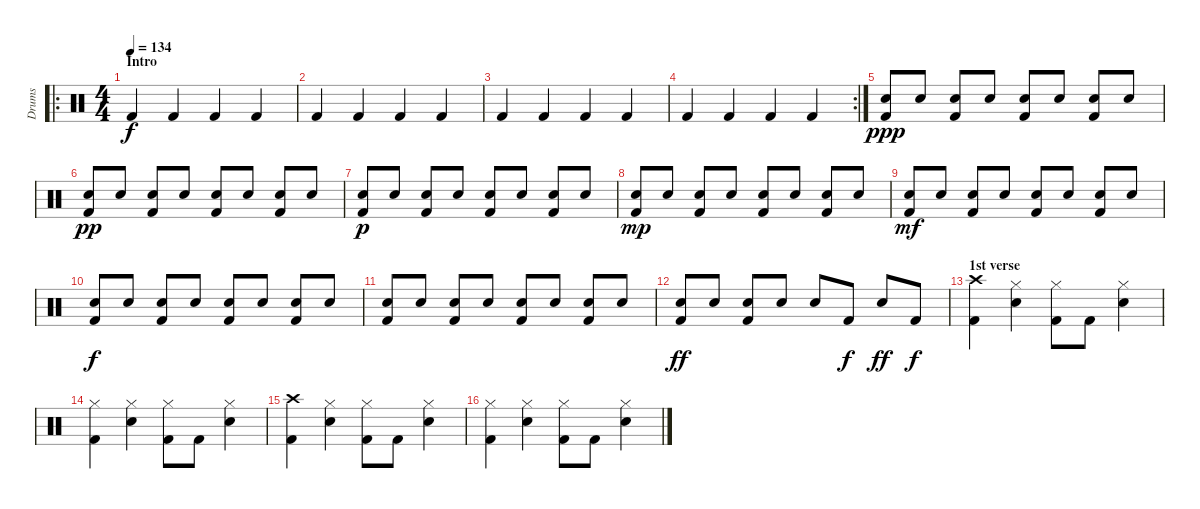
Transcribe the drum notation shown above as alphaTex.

\track ("Drums" "Drums") {instrument percussion}
\staff {score}
\articulation defaults
\ro
\ts (4 4)
\section ("" "Intro")
\tempo 134
\clef neutral
\ks c "Kick (hit) 2".4{dy f} "Kick (hit) 2".4 "Kick (hit) 2".4 "Kick (hit) 2".4
|
"Kick (hit) 2".4 "Kick (hit) 2".4 "Kick (hit) 2".4 "Kick (hit) 2".4 |
"Kick (hit) 2".4 "Kick (hit) 2".4 "Kick (hit) 2".4 "Kick (hit) 2".4 |
\rc 2 "Kick (hit) 2".4 "Kick (hit) 2".4 "Kick (hit) 2".4 "Kick (hit) 2".4
|
("Electric Snare (hit)" "Kick (hit) 2").8{dy ppp} "Electric Snare (hit)".8 ("Electric Snare (hit)" "Kick (hit) 2").8 "Electric Snare (hit)".8 ("Electric Snare (hit)" "Kick (hit) 2").8 "Electric Snare (hit)".8 ("Electric Snare (hit)" "Kick (hit) 2").8 "Electric Snare (hit)".8 |
("Electric Snare (hit)" "Kick (hit) 2").8{dy pp} "Electric Snare (hit)".8 ("Electric Snare (hit)" "Kick (hit) 2").8 "Electric Snare (hit)".8 ("Electric Snare (hit)" "Kick (hit) 2").8 "Electric Snare (hit)".8 ("Electric Snare (hit)" "Kick (hit) 2").8 "Electric Snare (hit)".8 |
("Electric Snare (hit)" "Kick (hit) 2").8{dy p} "Electric Snare (hit)".8 ("Electric Snare (hit)" "Kick (hit) 2").8 "Electric Snare (hit)".8 ("Electric Snare (hit)" "Kick (hit) 2").8 "Electric Snare (hit)".8 ("Electric Snare (hit)" "Kick (hit) 2").8 "Electric Snare (hit)".8 |
("Electric Snare (hit)" "Kick (hit) 2").8{dy mp} "Electric Snare (hit)".8 ("Electric Snare (hit)" "Kick (hit) 2").8 "Electric Snare (hit)".8 ("Electric Snare (hit)" "Kick (hit) 2").8 "Electric Snare (hit)".8 ("Electric Snare (hit)" "Kick (hit) 2").8 "Electric Snare (hit)".8 |
("Electric Snare (hit)" "Kick (hit) 2").8{dy mf} "Electric Snare (hit)".8 ("Electric Snare (hit)" "Kick (hit) 2").8 "Electric Snare (hit)".8 ("Electric Snare (hit)" "Kick (hit) 2").8 "Electric Snare (hit)".8 ("Electric Snare (hit)" "Kick (hit) 2").8 "Electric Snare (hit)".8 |
("Electric Snare (hit)" "Kick (hit) 2").8{dy f} "Electric Snare (hit)".8 ("Electric Snare (hit)" "Kick (hit) 2").8 "Electric Snare (hit)".8 ("Electric Snare (hit)" "Kick (hit) 2").8 "Electric Snare (hit)".8 ("Electric Snare (hit)" "Kick (hit) 2").8 "Electric Snare (hit)".8 |
("Electric Snare (hit)" "Kick (hit) 2").8 "Electric Snare (hit)".8 ("Electric Snare (hit)" "Kick (hit) 2").8 "Electric Snare (hit)".8 ("Electric Snare (hit)" "Kick (hit) 2").8 "Electric Snare (hit)".8 ("Electric Snare (hit)" "Kick (hit) 2").8 "Electric Snare (hit)".8 |
("Electric Snare (hit)" "Kick (hit) 2").8{dy ff} "Electric Snare (hit)".8 ("Electric Snare (hit)" "Kick (hit) 2").8 "Electric Snare (hit)".8 "Electric Snare (hit)".8 "Kick (hit) 2".8{dy f} "Electric Snare (hit)".8{dy ff} "Kick (hit) 2".8{dy f} |
\section ("" "1st verse")
("Crash high (hit)" "Kick (hit) 2").4 ("Hi-Hat (closed)" "Electric Snare (hit)").4 ("Hi-Hat (closed)" "Kick (hit) 2").8 "Kick (hit) 2".8 ("Hi-Hat (closed)" "Electric Snare (hit)").4 |
("Hi-Hat (closed)" "Kick (hit) 2").4 ("Hi-Hat (closed)" "Electric Snare (hit)").4 ("Hi-Hat (closed)" "Kick (hit) 2").8 "Kick (hit) 2".8 ("Hi-Hat (closed)" "Electric Snare (hit)").4 |
("Crash high (hit)" "Kick (hit) 2").4 ("Hi-Hat (closed)" "Electric Snare (hit)").4 ("Hi-Hat (closed)" "Kick (hit) 2").8 "Kick (hit) 2".8 ("Hi-Hat (closed)" "Electric Snare (hit)").4 |
("Hi-Hat (closed)" "Kick (hit) 2").4 ("Hi-Hat (closed)" "Electric Snare (hit)").4 ("Hi-Hat (closed)" "Kick (hit) 2").8 "Kick (hit) 2".8 ("Hi-Hat (closed)" "Electric Snare (hit)").4
